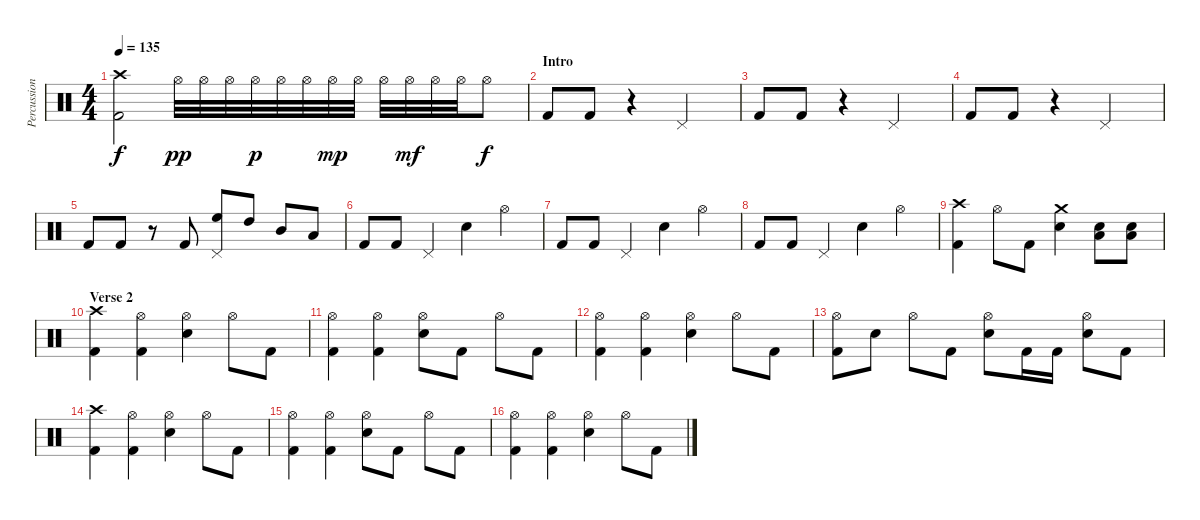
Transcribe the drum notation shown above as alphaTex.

\track ("Percussion" "Percussion") {instrument percussion}
\staff {score}
\articulation defaults
\ts (4 4)
\tempo 135
\clef neutral
\ks c
("Kick (hit) 2" "Crash high (hit)").2{dy f} "Hi-Hat (open)".32{dy pp} "Hi-Hat (open)".32 "Hi-Hat (open)".32 "Hi-Hat (open)".32{dy p} "Hi-Hat (open)".32 "Hi-Hat (open)".32 "Hi-Hat (open)".32{dy mp} "Hi-Hat (open)".32 "Hi-Hat (open)".32 "Hi-Hat (open)".32{dy mf} "Hi-Hat (open)".32 "Hi-Hat (open)".32 "Hi-Hat (open)".8{dy f} |
\section ("" "Intro")
"Kick (hit) 2".8 "Kick (hit) 2".8 r.4 "Pedal Hi-Hat (hit)".2 |
"Kick (hit) 2".8 "Kick (hit) 2".8 r.4 "Pedal Hi-Hat (hit)".2 |
"Kick (hit) 2".8 "Kick (hit) 2".8 r.4 "Pedal Hi-Hat (hit)".2 |
"Kick (hit) 2".8 "Kick (hit) 2".8 r.8 "Kick (hit) 2".8 ("High Floor Tom (hit)" "Pedal Hi-Hat (hit)").8 "High Tom (hit)".8 "Mid Tom (hit)".8 "Low Tom (hit)".8 |
"Kick (hit) 2".8 "Kick (hit) 2".8 "Pedal Hi-Hat (hit)".4 "Electric Snare (hit)".4 "Hi-Hat (open)".4 |
"Kick (hit) 2".8 "Kick (hit) 2".8 "Pedal Hi-Hat (hit)".4 "Electric Snare (hit)".4 "Hi-Hat (open)".4 |
"Kick (hit) 2".8 "Kick (hit) 2".8 "Pedal Hi-Hat (hit)".4 "Electric Snare (hit)".4 "Hi-Hat (open)".4 |
("Kick (hit) 2" "Crash high (hit)").4 "Hi-Hat (open)".8 "Kick (hit) 2".8 ("Electric Snare (hit)" "Crash medium (hit)").4 ("Electric Snare (hit)" "Low Tom (hit)").8 ("Electric Snare (hit)" "Low Tom (hit)").8 |
\section ("" "Verse 2")
("Kick (hit) 2" "Crash high (hit)").4 ("Kick (hit) 2" "Hi-Hat (open)").4 ("Electric Snare (hit)" "Hi-Hat (open)").4 "Hi-Hat (open)".8 "Kick (hit) 2".8 |
("Kick (hit) 2" "Hi-Hat (open)").4 ("Kick (hit) 2" "Hi-Hat (open)").4 ("Electric Snare (hit)" "Hi-Hat (open)").8 "Kick (hit) 2".8 "Hi-Hat (open)".8 "Kick (hit) 2".8 |
("Kick (hit) 2" "Hi-Hat (open)").4 ("Kick (hit) 2" "Hi-Hat (open)").4 ("Electric Snare (hit)" "Hi-Hat (open)").4 "Hi-Hat (open)".8 "Kick (hit) 2".8 |
("Kick (hit) 2" "Hi-Hat (open)").8 "Electric Snare (hit)".8 "Hi-Hat (open)".8 "Kick (hit) 2".8 ("Electric Snare (hit)" "Hi-Hat (open)").8 "Kick (hit) 2".16 "Kick (hit) 2".16 ("Electric Snare (hit)" "Hi-Hat (open)").8 "Kick (hit) 2".8 |
("Kick (hit) 2" "Crash high (hit)").4 ("Kick (hit) 2" "Hi-Hat (open)").4 ("Electric Snare (hit)" "Hi-Hat (open)").4 "Hi-Hat (open)".8 "Kick (hit) 2".8 |
("Kick (hit) 2" "Hi-Hat (open)").4 ("Kick (hit) 2" "Hi-Hat (open)").4 ("Electric Snare (hit)" "Hi-Hat (open)").8 "Kick (hit) 2".8 "Hi-Hat (open)".8 "Kick (hit) 2".8 |
("Kick (hit) 2" "Hi-Hat (open)").4 ("Kick (hit) 2" "Hi-Hat (open)").4 ("Electric Snare (hit)" "Hi-Hat (open)").4 "Hi-Hat (open)".8 "Kick (hit) 2".8
